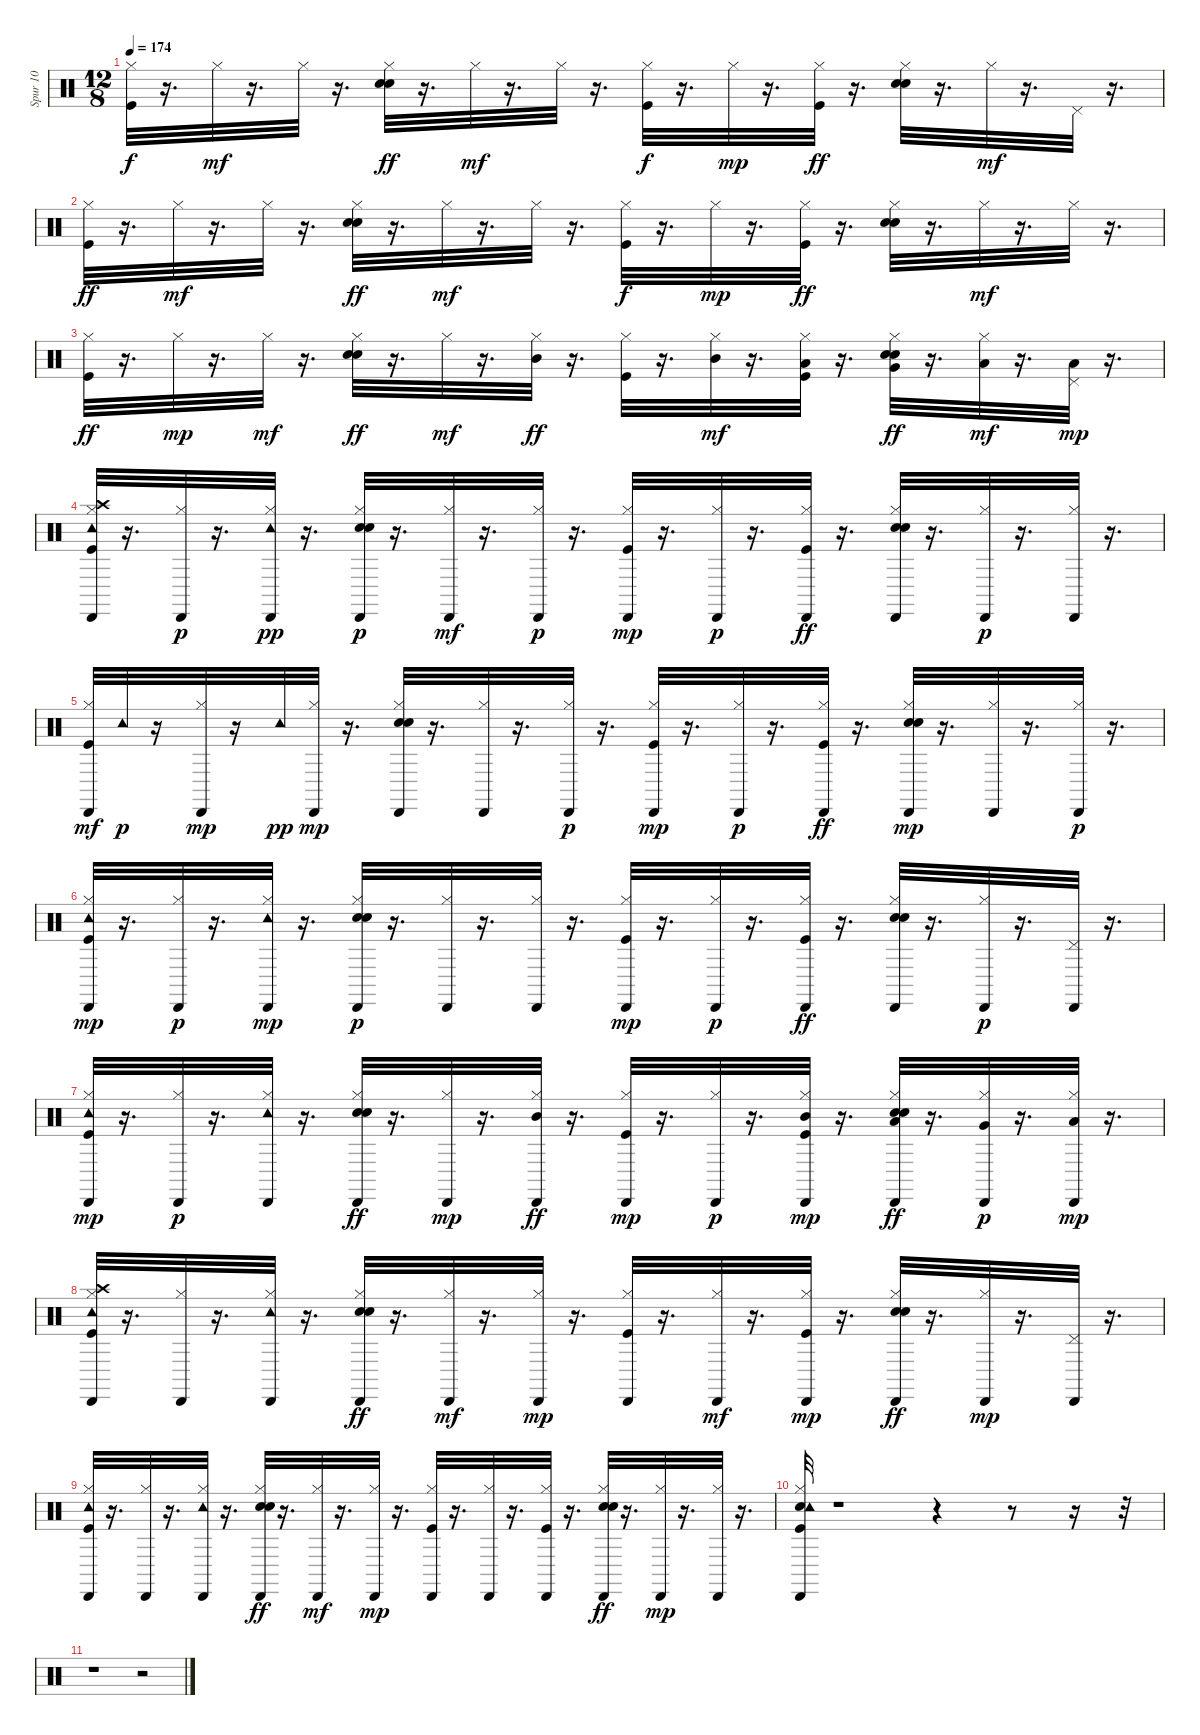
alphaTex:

\track ("Spur 10" "Spur 10") {instrument percussion}
\staff {score}
\articulation defaults
\ts (12 8)
\tempo 174
\clef neutral
\ks c
("Hi-Hat (closed)" "Kick (hit)").32{dy f} r.16{d} "Hi-Hat (closed)".32{dy mf} r.16{d} "Hi-Hat (closed)".32 r.16{d} ("Hi-Hat (closed)" "Electric Snare (hit)" "Hand Clap (hit)").32{dy ff} r.16{d} "Hi-Hat (closed)".32{dy mf} r.16{d} "Hi-Hat (closed)".32 r.16{d} ("Kick (hit)" "Hi-Hat (closed)").32{dy f} r.16{d} "Hi-Hat (closed)".32{dy mp} r.16{d} ("Hi-Hat (closed)" "Kick (hit)").32{dy ff} r.16{d} ("Hand Clap (hit)" "Hi-Hat (closed)" "Electric Snare (hit)").32 r.16{d} "Hi-Hat (closed)".32{dy mf} r.16{d} "Pedal Hi-Hat (hit)".32 r.16{d} |
("Kick (hit)" "Hi-Hat (closed)").32{dy ff} r.16{d} "Hi-Hat (closed)".32{dy mf} r.16{d} "Hi-Hat (closed)".32 r.16{d} ("Hand Clap (hit)" "Hi-Hat (closed)" "Electric Snare (hit)").32{dy ff} r.16{d} "Hi-Hat (closed)".32{dy mf} r.16{d} "Hi-Hat (closed)".32 r.16{d} ("Hi-Hat (closed)" "Kick (hit)").32{dy f} r.16{d} "Hi-Hat (closed)".32{dy mp} r.16{d} ("Hi-Hat (closed)" "Kick (hit)").32{dy ff} r.16{d} ("Hi-Hat (closed)" "Hand Clap (hit)" "Electric Snare (hit)").32 r.16{d} "Hi-Hat (closed)".32{dy mf} r.16{d} "Hi-Hat (closed)".32 r.16{d} |
("Hi-Hat (closed)" "Kick (hit)").32{dy ff} r.16{d} "Hi-Hat (closed)".32{dy mp} r.16{d} "Hi-Hat (closed)".32{dy mf} r.16{d} ("Hi-Hat (closed)" "Hand Clap (hit)" "Electric Snare (hit)").32{dy ff} r.16{d} "Hi-Hat (closed)".32{dy mf} r.16{d} ("Hi-Hat (closed)" "Mid Tom (hit)").32{dy ff} r.16{d} ("Hi-Hat (closed)" "Kick (hit)").32 r.16{d} ("Hi-Hat (closed)" "Mid Tom (hit)").32{dy mf} r.16{d} ("Hi-Hat (closed)" "Kick (hit)" "Low Tom (hit)").32 r.16{d} ("Hand Clap (hit)" "Hi-Hat (closed)" "Electric Snare (hit)" "Very Low Tom (hit)").32{dy ff} r.16{d} ("Hi-Hat (closed)" "Low Floor Tom (hit)").32{dy mf} r.16{d} ("Low Tom (hit)" "Pedal Hi-Hat (hit)").32{dy mp} r.16{d} |
("Hi-Hat (closed)" "Kick (hit)" "Crash high (hit)" "Tambourine (hit)" "Cabasa (hit)").32 r.16{d} ("Hi-Hat (closed)" "Cabasa (hit)").32{dy p} r.16{d} ("Hi-Hat (closed)" "Cabasa (hit)" "Tambourine (hit)").32{dy pp} r.16{d} ("Hand Clap (hit)" "Hi-Hat (closed)" "Electric Snare (hit)" "Cabasa (hit)").32{dy p} r.16{d} ("Cabasa (hit)" "Hi-Hat (closed)").32{dy mf} r.16{d} ("Hi-Hat (closed)" "Cabasa (hit)").32{dy p} r.16{d} ("Kick (hit)" "Cabasa (hit)" "Hi-Hat (closed)").32{dy mp} r.16{d} ("Hi-Hat (closed)" "Cabasa (hit)").32{dy p} r.16{d} ("Hi-Hat (closed)" "Cabasa (hit)" "Kick (hit)").32{dy ff} r.16{d} ("Hi-Hat (closed)" "Hand Clap (hit)" "Cabasa (hit)" "Electric Snare (hit)").32 r.16{d} ("Hi-Hat (closed)" "Cabasa (hit)").32{dy p} r.16{d} ("Hi-Hat (closed)" "Cabasa (hit)").32 r.16{d} |
("Kick (hit)" "Cabasa (hit)" "Hi-Hat (closed)").32{dy mf} "Tambourine (hit)".32{dy p} r.16 ("Cabasa (hit)" "Hi-Hat (closed)").32{dy mp} r.16 "Tambourine (hit)".32{dy pp} ("Cabasa (hit)" "Hi-Hat (closed)").32{dy mp} r.16{d} ("Cabasa (hit)" "Electric Snare (hit)" "Hand Clap (hit)" "Hi-Hat (closed)").32 r.16{d} ("Cabasa (hit)" "Hi-Hat (closed)").32 r.16{d} ("Cabasa (hit)" "Hi-Hat (closed)").32{dy p} r.16{d} ("Hi-Hat (closed)" "Kick (hit)" "Cabasa (hit)").32{dy mp} r.16{d} ("Hi-Hat (closed)" "Cabasa (hit)").32{dy p} r.16{d} ("Hi-Hat (closed)" "Cabasa (hit)" "Kick (hit)").32{dy ff} r.16{d} ("Hi-Hat (closed)" "Electric Snare (hit)" "Hand Clap (hit)" "Cabasa (hit)").32{dy mp} r.16{d} ("Hi-Hat (closed)" "Cabasa (hit)").32 r.16{d} ("Hi-Hat (closed)" "Cabasa (hit)").32{dy p} r.16{d} |
("Tambourine (hit)" "Hi-Hat (closed)" "Kick (hit)" "Cabasa (hit)").32{dy mp} r.16{d} ("Hi-Hat (closed)" "Cabasa (hit)").32{dy p} r.16{d} ("Tambourine (hit)" "Hi-Hat (closed)" "Cabasa (hit)").32{dy mp} r.16{d} ("Hi-Hat (closed)" "Hand Clap (hit)" "Electric Snare (hit)" "Cabasa (hit)").32{dy p} r.16{d} ("Hi-Hat (closed)" "Cabasa (hit)").32 r.16{d} ("Hi-Hat (closed)" "Cabasa (hit)").32 r.16{d} ("Hi-Hat (closed)" "Kick (hit)" "Cabasa (hit)").32{dy mp} r.16{d} ("Hi-Hat (closed)" "Cabasa (hit)").32{dy p} r.16{d} ("Hi-Hat (closed)" "Cabasa (hit)" "Kick (hit)").32{dy ff} r.16{d} ("Hi-Hat (closed)" "Hand Clap (hit)" "Cabasa (hit)" "Electric Snare (hit)").32 r.16{d} ("Hi-Hat (closed)" "Cabasa (hit)").32{dy p} r.16{d} ("Pedal Hi-Hat (hit)" "Cabasa (hit)").32 r.16{d} |
("Tambourine (hit)" "Hi-Hat (closed)" "Kick (hit)" "Cabasa (hit)").32{dy mp} r.16{d} ("Hi-Hat (closed)" "Cabasa (hit)").32{dy p} r.16{d} ("Tambourine (hit)" "Hi-Hat (closed)" "Cabasa (hit)").32 r.16{d} ("Hi-Hat (closed)" "Electric Snare (hit)" "Cabasa (hit)" "Hand Clap (hit)").32{dy ff} r.16{d} ("Hi-Hat (closed)" "Cabasa (hit)").32{dy mp} r.16{d} ("Hi-Hat (closed)" "Cabasa (hit)" "Mid Tom (hit)").32{dy ff} r.16{d} ("Hi-Hat (closed)" "Kick (hit)" "Cabasa (hit)").32{dy mp} r.16{d} ("Hi-Hat (closed)" "Cabasa (hit)").32{dy p} r.16{d} ("Hi-Hat (closed)" "Kick (hit)" "Mid Tom (hit)" "Cabasa (hit)").32{dy mp} r.16{d} ("Hi-Hat (closed)" "Low Tom (hit)" "Hand Clap (hit)" "Cabasa (hit)" "Electric Snare (hit)").32{dy ff} r.16{d} ("Hi-Hat (closed)" "Very Low Tom (hit)" "Cabasa (hit)").32{dy p} r.16{d} ("Hi-Hat (closed)" "Low Floor Tom (hit)" "Cabasa (hit)").32{dy mp} r.16{d} |
("Tambourine (hit)" "Hi-Hat (closed)" "Kick (hit)" "Crash high (hit)" "Cabasa (hit)").32 r.16{d} ("Cabasa (hit)" "Hi-Hat (closed)").32 r.16{d} ("Tambourine (hit)" "Cabasa (hit)" "Hi-Hat (closed)").32 r.16{d} ("Cabasa (hit)" "Hi-Hat (closed)" "Electric Snare (hit)" "Hand Clap (hit)").32{dy ff} r.16{d} ("Cabasa (hit)" "Hi-Hat (closed)").32{dy mf} r.16{d} ("Hi-Hat (closed)" "Cabasa (hit)").32{dy mp} r.16{d} ("Cabasa (hit)" "Hi-Hat (closed)" "Kick (hit)").32 r.16{d} ("Cabasa (hit)" "Hi-Hat (closed)").32{dy mf} r.16{d} ("Cabasa (hit)" "Hi-Hat (closed)" "Kick (hit)").32{dy mp} r.16{d} ("Hi-Hat (closed)" "Hand Clap (hit)" "Cabasa (hit)" "Electric Snare (hit)").32{dy ff} r.16{d} ("Hi-Hat (closed)" "Cabasa (hit)").32{dy mp} r.16{d} ("Pedal Hi-Hat (hit)" "Cabasa (hit)").32 r.16{d} |
("Tambourine (hit)" "Hi-Hat (closed)" "Kick (hit)" "Cabasa (hit)").32 r.16{d} ("Cabasa (hit)" "Hi-Hat (closed)").32 r.16{d} ("Tambourine (hit)" "Hi-Hat (closed)" "Cabasa (hit)").32 r.16{d} ("Cabasa (hit)" "Hi-Hat (closed)" "Electric Snare (hit)" "Hand Clap (hit)").32{dy ff} r.16{d} ("Cabasa (hit)" "Hi-Hat (closed)").32{dy mf} r.16{d} ("Hi-Hat (closed)" "Cabasa (hit)").32{dy mp} r.16{d} ("Kick (hit)" "Hi-Hat (closed)" "Cabasa (hit)").32 r.16{d} ("Cabasa (hit)" "Hi-Hat (closed)").32 r.16{d} ("Kick (hit)" "Hi-Hat (closed)" "Cabasa (hit)").32 r.16{d} ("Cabasa (hit)" "Hi-Hat (closed)" "Electric Snare (hit)" "Hand Clap (hit)").32{dy ff} r.16{d} ("Hi-Hat (closed)" "Cabasa (hit)").32{dy mp} r.16{d} ("Hi-Hat (closed)" "Cabasa (hit)").32 r.16{d} |
("Hi-Hat (closed)" "Kick (hit)" "Electric Snare (hit)" "Tambourine (hit)" "Cabasa (hit)").32 r.1 r.4 r.8 r.16 r.32 |
r.1 r.2
